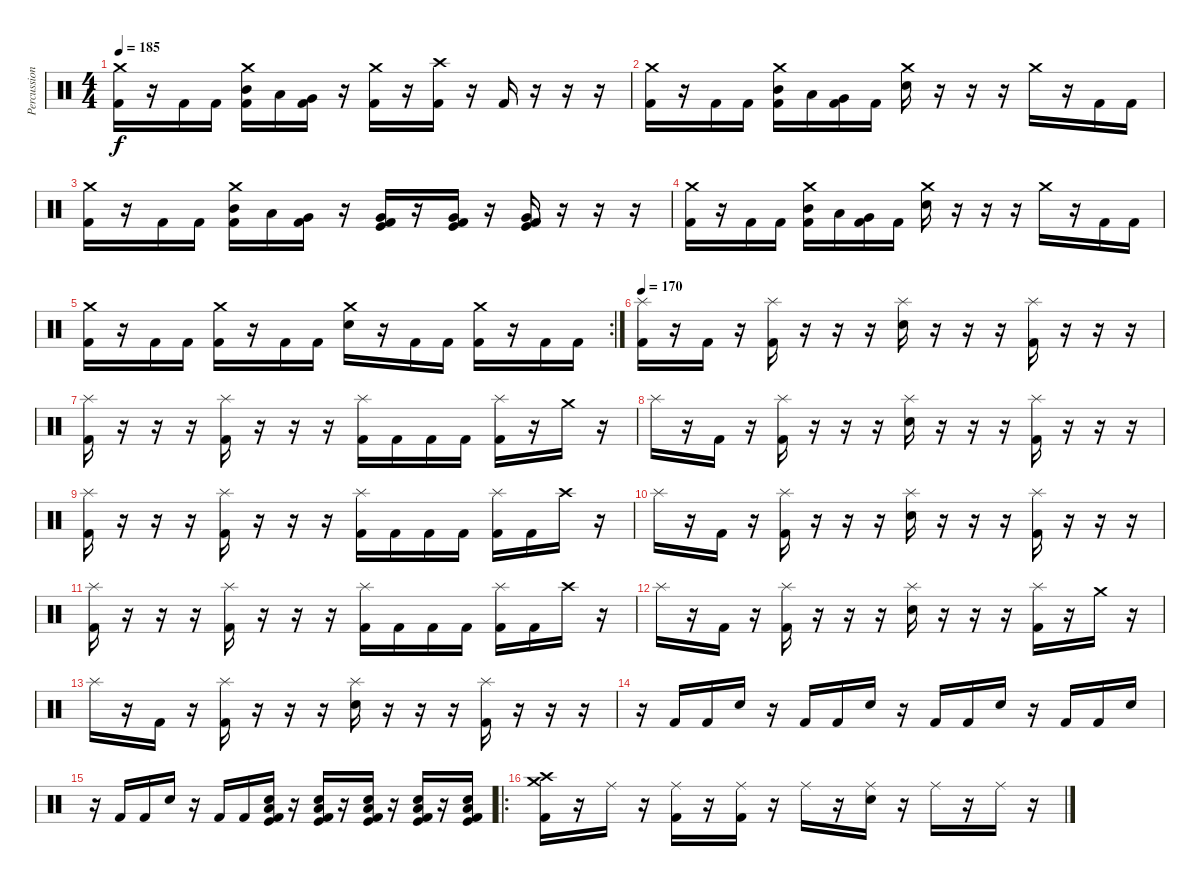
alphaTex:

\track ("Percussion" "Percussion") {instrument percussion}
\staff {score}
\articulation defaults
\ts (4 4)
\tempo 185
\clef neutral
\ks c
("Crash medium (hit)" "Kick (hit) 2").16{dy f} r.16 "Kick (hit) 2".16 "Kick (hit) 2".16 ("Crash medium (hit)" "Mid Tom (hit)" "Kick (hit) 2").16 "Low Tom (hit)".16 ("Very Low Tom (hit)" "Kick (hit) 2").16 r.16 ("Crash medium (hit)" "Kick (hit) 2").16 r.16 ("Crash high (hit)" "Kick (hit) 2").16 r.16 "Kick (hit) 2".16 r.16 r.16 r.16 |
("Crash medium (hit)" "Kick (hit) 2").16 r.16 "Kick (hit) 2".16 "Kick (hit) 2".16 ("Crash medium (hit)" "Mid Tom (hit)" "Kick (hit) 2").16 "Low Tom (hit)".16 ("Very Low Tom (hit)" "Kick (hit) 2").16 "Kick (hit) 2".16 ("Crash medium (hit)" "Electric Snare (hit)").16 r.16 r.16 r.16 "Crash medium (hit)".16 r.16 "Kick (hit) 2".16 "Kick (hit) 2".16 |
("Crash medium (hit)" "Kick (hit) 2").16 r.16 "Kick (hit) 2".16 "Kick (hit) 2".16 ("Crash medium (hit)" "Mid Tom (hit)" "Kick (hit) 2").16 "Low Tom (hit)".16 ("Very Low Tom (hit)" "Kick (hit) 2").16 r.16 ("Very Low Tom (hit)" "Kick (hit)" "Kick (hit) 2").16 r.16 ("Very Low Tom (hit)" "Kick (hit)" "Kick (hit) 2").16 r.16 ("Very Low Tom (hit)" "Kick (hit)" "Kick (hit) 2").16 r.16 r.16 r.16 |
("Crash medium (hit)" "Kick (hit) 2").16 r.16 "Kick (hit) 2".16 "Kick (hit) 2".16 ("Crash medium (hit)" "Mid Tom (hit)" "Kick (hit) 2").16 "Low Tom (hit)".16 ("Very Low Tom (hit)" "Kick (hit) 2").16 "Kick (hit) 2".16 ("Crash medium (hit)" "Electric Snare (hit)").16 r.16 r.16 r.16 "Crash medium (hit)".16 r.16 "Kick (hit) 2".16 "Kick (hit) 2".16 |
\rc 2
("Crash medium (hit)" "Kick (hit) 2").16 r.16 "Kick (hit) 2".16 "Kick (hit) 2".16 ("Crash medium (hit)" "Kick (hit) 2").16 r.16 "Kick (hit) 2".16 "Kick (hit) 2".16 ("Crash medium (hit)" "Electric Snare (hit)").16 r.16 "Kick (hit) 2".16 "Kick (hit) 2".16 ("Crash medium (hit)" "Kick (hit) 2").16 r.16 "Kick (hit) 2".16 "Kick (hit) 2".16 |
\tempo 170
("Splash (hit)" "Kick (hit) 2").16 r.16 "Kick (hit) 2".16 r.16 ("Splash (hit)" "Kick (hit) 2").16 r.16 r.16 r.16 ("Splash (hit)" "Electric Snare (hit)").16 r.16 r.16 r.16 ("Splash (hit)" "Kick (hit) 2").16 r.16 r.16 r.16 |
("Splash (hit)" "Kick (hit) 2").16 r.16 r.16 r.16 ("Splash (hit)" "Kick (hit) 2").16 r.16 r.16 r.16 ("Splash (hit)" "Kick (hit) 2").16 "Kick (hit) 2".16 "Kick (hit) 2".16 "Kick (hit) 2".16 ("Splash (hit)" "Kick (hit) 2").16 r.16 "Crash medium (hit)".16 r.16 |
"Splash (hit)".16 r.16 "Kick (hit) 2".16 r.16 ("Splash (hit)" "Kick (hit) 2").16 r.16 r.16 r.16 ("Splash (hit)" "Electric Snare (hit)").16 r.16 r.16 r.16 ("Splash (hit)" "Kick (hit) 2").16 r.16 r.16 r.16 |
("Splash (hit)" "Kick (hit) 2").16 r.16 r.16 r.16 ("Splash (hit)" "Kick (hit) 2").16 r.16 r.16 r.16 ("Splash (hit)" "Kick (hit) 2").16 "Kick (hit) 2".16 "Kick (hit) 2".16 "Kick (hit) 2".16 ("Splash (hit)" "Kick (hit) 2").16 "Kick (hit) 2".16 "Crash high (hit)".16 r.16 |
"Splash (hit)".16 r.16 "Kick (hit) 2".16 r.16 ("Splash (hit)" "Kick (hit) 2").16 r.16 r.16 r.16 ("Splash (hit)" "Electric Snare (hit)").16 r.16 r.16 r.16 ("Splash (hit)" "Kick (hit) 2").16 r.16 r.16 r.16 |
("Splash (hit)" "Kick (hit) 2").16 r.16 r.16 r.16 ("Splash (hit)" "Kick (hit) 2").16 r.16 r.16 r.16 ("Splash (hit)" "Kick (hit) 2").16 "Kick (hit) 2".16 "Kick (hit) 2".16 "Kick (hit) 2".16 ("Splash (hit)" "Kick (hit) 2").16 "Kick (hit) 2".16 "Crash high (hit)".16 r.16 |
"Splash (hit)".16 r.16 "Kick (hit) 2".16 r.16 ("Splash (hit)" "Kick (hit) 2").16 r.16 r.16 r.16 ("Splash (hit)" "Electric Snare (hit)").16 r.16 r.16 r.16 ("Splash (hit)" "Kick (hit) 2").16 r.16 "Crash medium (hit)".16 r.16 |
"Splash (hit)".16 r.16 "Kick (hit) 2".16 r.16 ("Splash (hit)" "Kick (hit) 2").16 r.16 r.16 r.16 ("Splash (hit)" "Electric Snare (hit)").16 r.16 r.16 r.16 ("Splash (hit)" "Kick (hit) 2").16 r.16 r.16 r.16 |
r.16 "Kick (hit) 2".16 "Kick (hit) 2".16 "Electric Snare (hit)".16 r.16 "Kick (hit) 2".16 "Kick (hit) 2".16 "Electric Snare (hit)".16 r.16 "Kick (hit) 2".16 "Kick (hit) 2".16 "Electric Snare (hit)".16 r.16 "Kick (hit) 2".16 "Kick (hit) 2".16 "Electric Snare (hit)".16 |
r.16 "Kick (hit) 2".16 "Kick (hit) 2".16 "Electric Snare (hit)".16 r.16 "Kick (hit) 2".16 "Kick (hit) 2".16 ("Kick (hit)" "Kick (hit) 2" "Electric Snare (hit)" "Low Floor Tom (hit)").16 r.16 ("Kick (hit)" "Kick (hit) 2" "Electric Snare (hit)" "Low Floor Tom (hit)").16 r.16 ("Kick (hit)" "Kick (hit) 2" "Electric Snare (hit)" "Low Floor Tom (hit)").16 r.16 ("Kick (hit)" "Kick (hit) 2" "Electric Snare (hit)" "Low Floor Tom (hit)").16 r.16 ("Kick (hit)" "Kick (hit) 2" "Electric Snare (hit)" "Low Floor Tom (hit)").16 |
\ro
("Crash medium (hit)" "Crash high (hit)" "Kick (hit) 2").16 r.16 "Ride (middle)".16 r.16 ("Ride (middle)" "Kick (hit) 2").16 r.16 ("Ride (middle)" "Kick (hit) 2").16 r.16 "Ride (middle)".16 r.16 ("Ride (middle)" "Electric Snare (hit)").16 r.16 "Ride (middle)".16 r.16 "Ride (middle)".16 r.16
